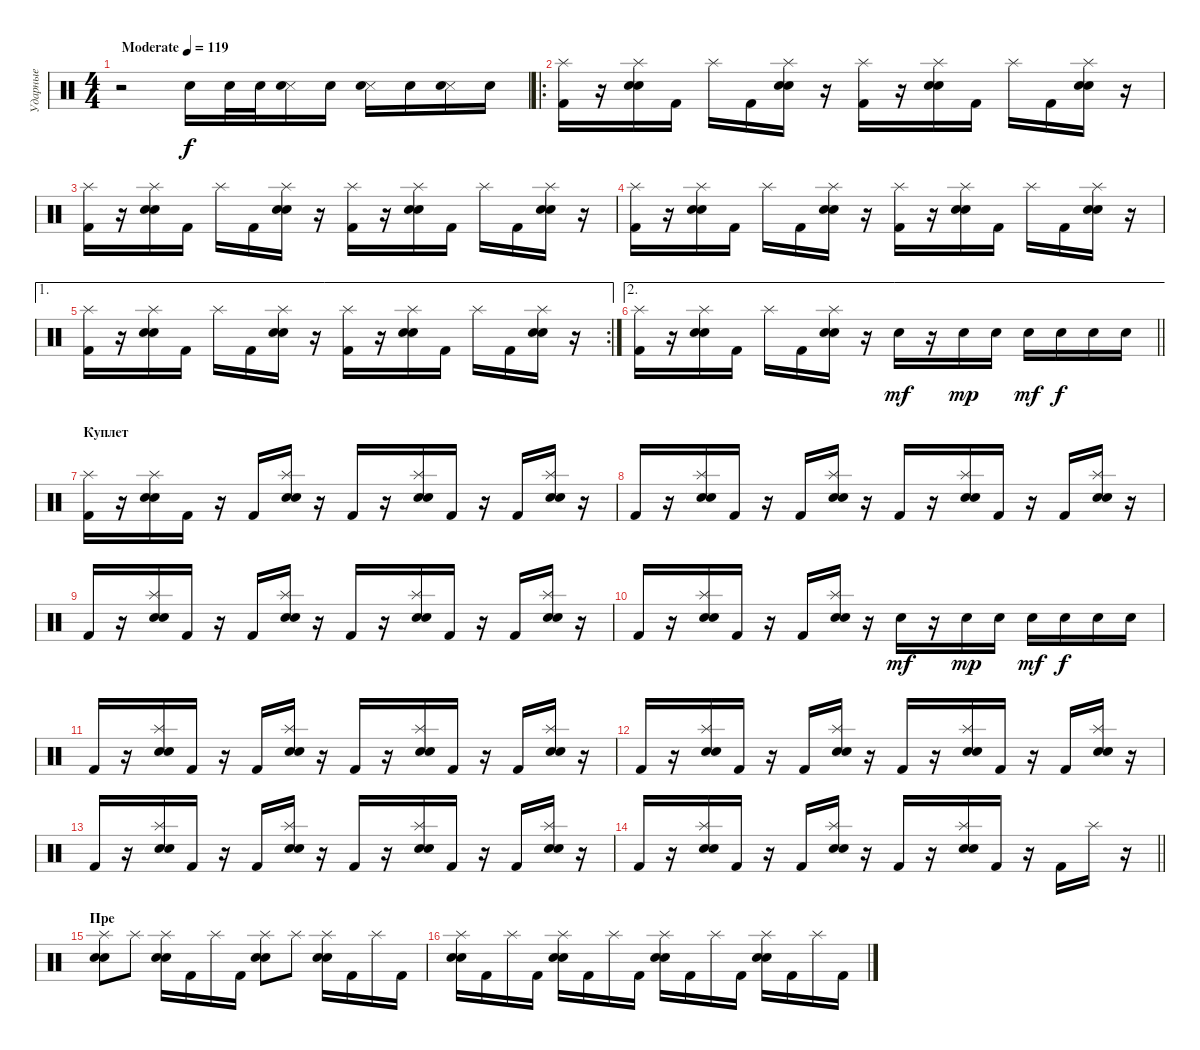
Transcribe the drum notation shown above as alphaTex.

\track ("Ударные" "Ударные") {instrument percussion}
\staff {score}
\articulation defaults
\ts (4 4)
\tempo (119 "Moderate")
\clef neutral
\ks c
r.2{dy f} "Electric Snare (hit)".16 "Electric Snare (hit)".32 "Electric Snare (hit)".32 ("Metronome (hit)" "Electric Snare (hit)").16 "Electric Snare (hit)".16 ("Metronome (hit)" "Electric Snare (hit)").16 "Electric Snare (hit)".16 ("Metronome (hit)" "Electric Snare (hit)").16 "Electric Snare (hit)".16 |
\ro
("Splash (hit)" "Kick (hit) 2").16 r.16 ("Splash (hit)" "Electric Snare (hit)" "Snare (hit) 2").16 "Kick (hit) 2".16 "Splash (hit)".16 "Kick (hit) 2".16 ("Splash (hit)" "Electric Snare (hit)" "Snare (hit) 2").16 r.16 ("Splash (hit)" "Kick (hit) 2").16 r.16 ("Splash (hit)" "Electric Snare (hit)" "Snare (hit) 2").16 "Kick (hit) 2".16 "Splash (hit)".16 "Kick (hit) 2".16 ("Splash (hit)" "Electric Snare (hit)" "Snare (hit) 2").16 r.16 |
("Splash (hit)" "Kick (hit) 2").16 r.16 ("Splash (hit)" "Electric Snare (hit)" "Snare (hit) 2").16 "Kick (hit) 2".16 "Splash (hit)".16 "Kick (hit) 2".16 ("Splash (hit)" "Electric Snare (hit)" "Snare (hit) 2").16 r.16 ("Splash (hit)" "Kick (hit) 2").16 r.16 ("Splash (hit)" "Electric Snare (hit)" "Snare (hit) 2").16 "Kick (hit) 2".16 "Splash (hit)".16 "Kick (hit) 2".16 ("Splash (hit)" "Electric Snare (hit)" "Snare (hit) 2").16 r.16 |
("Splash (hit)" "Kick (hit) 2").16 r.16 ("Splash (hit)" "Electric Snare (hit)" "Snare (hit) 2").16 "Kick (hit) 2".16 "Splash (hit)".16 "Kick (hit) 2".16 ("Splash (hit)" "Electric Snare (hit)" "Snare (hit) 2").16 r.16 ("Splash (hit)" "Kick (hit) 2").16 r.16 ("Splash (hit)" "Electric Snare (hit)" "Snare (hit) 2").16 "Kick (hit) 2".16 "Splash (hit)".16 "Kick (hit) 2".16 ("Splash (hit)" "Electric Snare (hit)" "Snare (hit) 2").16 r.16 |
\ae 1
\rc 2
("Splash (hit)" "Kick (hit) 2").16 r.16 ("Splash (hit)" "Electric Snare (hit)" "Snare (hit) 2").16 "Kick (hit) 2".16 "Splash (hit)".16 "Kick (hit) 2".16 ("Splash (hit)" "Electric Snare (hit)" "Snare (hit) 2").16 r.16 ("Splash (hit)" "Kick (hit) 2").16 r.16 ("Splash (hit)" "Electric Snare (hit)" "Snare (hit) 2").16 "Kick (hit) 2".16 "Splash (hit)".16 "Kick (hit) 2".16 ("Splash (hit)" "Electric Snare (hit)" "Snare (hit) 2").16 r.16 |
\ae 2
\barLineRight lightlight
("Splash (hit)" "Kick (hit) 2").16 r.16 ("Splash (hit)" "Electric Snare (hit)" "Snare (hit) 2").16 "Kick (hit) 2".16 "Splash (hit)".16 "Kick (hit) 2".16 ("Splash (hit)" "Electric Snare (hit)" "Snare (hit) 2").16 r.16 "Electric Snare (hit)".16{dy mf} r.16 "Electric Snare (hit)".16{dy mp} "Electric Snare (hit)".16 "Electric Snare (hit)".16{dy mf} "Electric Snare (hit)".16{dy f} "Electric Snare (hit)".16 "Electric Snare (hit)".16 |
\section ("" "Куплет")
("Splash (hit)" "Kick (hit) 2").16 r.16 ("Splash (hit)" "Electric Snare (hit)" "Snare (hit) 2").16 "Kick (hit) 2".16 r.16 "Kick (hit) 2".16 ("Splash (hit)" "Electric Snare (hit)" "Snare (hit) 2").16 r.16 "Kick (hit) 2".16 r.16 ("Splash (hit)" "Electric Snare (hit)" "Snare (hit) 2").16 "Kick (hit) 2".16 r.16 "Kick (hit) 2".16 ("Splash (hit)" "Electric Snare (hit)" "Snare (hit) 2").16 r.16 |
"Kick (hit) 2".16 r.16 ("Splash (hit)" "Electric Snare (hit)" "Snare (hit) 2").16 "Kick (hit) 2".16 r.16 "Kick (hit) 2".16 ("Splash (hit)" "Electric Snare (hit)" "Snare (hit) 2").16 r.16 "Kick (hit) 2".16 r.16 ("Splash (hit)" "Electric Snare (hit)" "Snare (hit) 2").16 "Kick (hit) 2".16 r.16 "Kick (hit) 2".16 ("Splash (hit)" "Electric Snare (hit)" "Snare (hit) 2").16 r.16 |
"Kick (hit) 2".16 r.16 ("Splash (hit)" "Electric Snare (hit)" "Snare (hit) 2").16 "Kick (hit) 2".16 r.16 "Kick (hit) 2".16 ("Splash (hit)" "Electric Snare (hit)" "Snare (hit) 2").16 r.16 "Kick (hit) 2".16 r.16 ("Splash (hit)" "Electric Snare (hit)" "Snare (hit) 2").16 "Kick (hit) 2".16 r.16 "Kick (hit) 2".16 ("Splash (hit)" "Electric Snare (hit)" "Snare (hit) 2").16 r.16 |
"Kick (hit) 2".16 r.16 ("Splash (hit)" "Electric Snare (hit)" "Snare (hit) 2").16 "Kick (hit) 2".16 r.16 "Kick (hit) 2".16 ("Splash (hit)" "Electric Snare (hit)" "Snare (hit) 2").16 r.16 "Electric Snare (hit)".16{dy mf} r.16 "Electric Snare (hit)".16{dy mp} "Electric Snare (hit)".16 "Electric Snare (hit)".16{dy mf} "Electric Snare (hit)".16{dy f} "Electric Snare (hit)".16 "Electric Snare (hit)".16 |
"Kick (hit) 2".16 r.16 ("Splash (hit)" "Electric Snare (hit)" "Snare (hit) 2").16 "Kick (hit) 2".16 r.16 "Kick (hit) 2".16 ("Splash (hit)" "Electric Snare (hit)" "Snare (hit) 2").16 r.16 "Kick (hit) 2".16 r.16 ("Splash (hit)" "Electric Snare (hit)" "Snare (hit) 2").16 "Kick (hit) 2".16 r.16 "Kick (hit) 2".16 ("Splash (hit)" "Electric Snare (hit)" "Snare (hit) 2").16 r.16 |
"Kick (hit) 2".16 r.16 ("Splash (hit)" "Electric Snare (hit)" "Snare (hit) 2").16 "Kick (hit) 2".16 r.16 "Kick (hit) 2".16 ("Splash (hit)" "Electric Snare (hit)" "Snare (hit) 2").16 r.16 "Kick (hit) 2".16 r.16 ("Splash (hit)" "Electric Snare (hit)" "Snare (hit) 2").16 "Kick (hit) 2".16 r.16 "Kick (hit) 2".16 ("Splash (hit)" "Electric Snare (hit)" "Snare (hit) 2").16 r.16 |
"Kick (hit) 2".16 r.16 ("Splash (hit)" "Electric Snare (hit)" "Snare (hit) 2").16 "Kick (hit) 2".16 r.16 "Kick (hit) 2".16 ("Splash (hit)" "Electric Snare (hit)" "Snare (hit) 2").16 r.16 "Kick (hit) 2".16 r.16 ("Splash (hit)" "Electric Snare (hit)" "Snare (hit) 2").16 "Kick (hit) 2".16 r.16 "Kick (hit) 2".16 ("Splash (hit)" "Electric Snare (hit)" "Snare (hit) 2").16 r.16 |
\barLineRight lightlight "Kick (hit) 2".16
r.16 ("Splash (hit)" "Electric Snare (hit)" "Snare (hit) 2").16 "Kick (hit) 2".16 r.16 "Kick (hit) 2".16 ("Splash (hit)" "Electric Snare (hit)" "Snare (hit) 2").16 r.16 "Kick (hit) 2".16 r.16 ("Splash (hit)" "Electric Snare (hit)" "Snare (hit) 2").16 "Kick (hit) 2".16 r.16 "Kick (hit) 2".16 "Splash (hit)".16 r.16 |
\section ("" "Пре")
("Splash (hit)" "Electric Snare (hit)" "Snare (hit) 2").8 "Splash (hit)".8 ("Splash (hit)" "Electric Snare (hit)" "Snare (hit) 2").16 "Kick (hit) 2".16 "Splash (hit)".16 "Kick (hit) 2".16 ("Splash (hit)" "Electric Snare (hit)" "Snare (hit) 2").8 "Splash (hit)".8 ("Splash (hit)" "Electric Snare (hit)" "Snare (hit) 2").16 "Kick (hit) 2".16 "Splash (hit)".16 "Kick (hit) 2".16 |
("Splash (hit)" "Electric Snare (hit)" "Snare (hit) 2").16 "Kick (hit) 2".16 "Splash (hit)".16 "Kick (hit) 2".16 ("Splash (hit)" "Electric Snare (hit)" "Snare (hit) 2").16 "Kick (hit) 2".16 "Splash (hit)".16 "Kick (hit) 2".16 ("Splash (hit)" "Electric Snare (hit)" "Snare (hit) 2").16 "Kick (hit) 2".16 "Splash (hit)".16 "Kick (hit) 2".16 ("Splash (hit)" "Electric Snare (hit)" "Snare (hit) 2").16 "Kick (hit) 2".16 "Splash (hit)".16 "Kick (hit) 2".16
